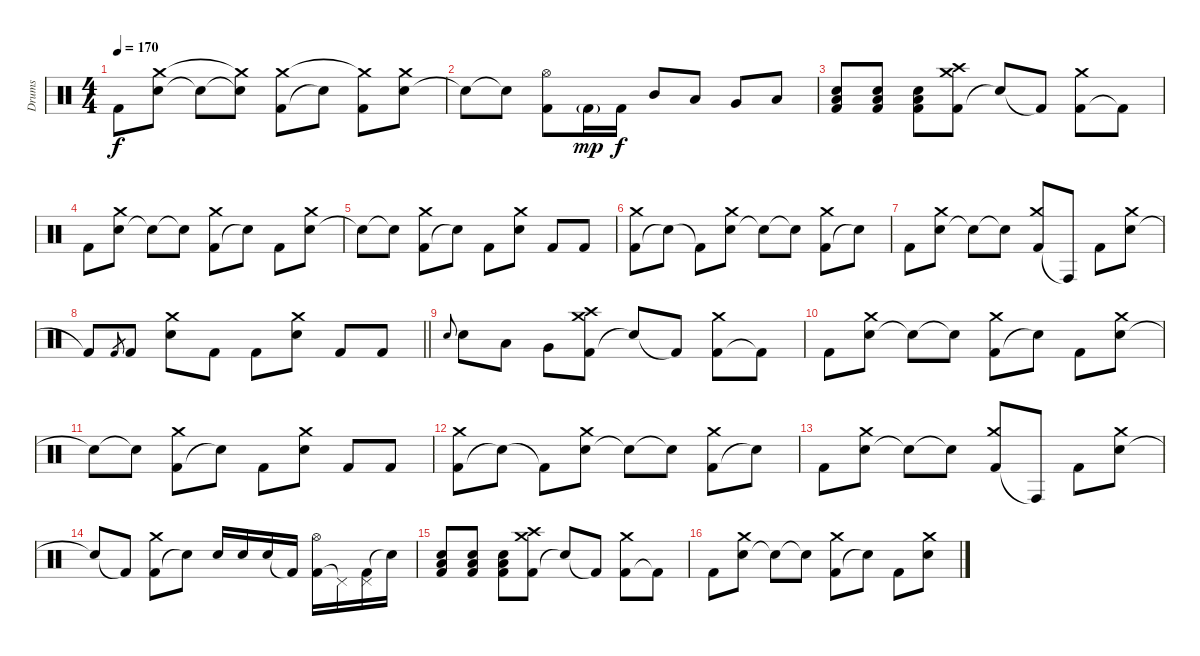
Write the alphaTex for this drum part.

\track ("Drums" "Drums") {instrument percussion}
\staff {score}
\articulation defaults
\ts (4 4)
\tempo 170
\clef neutral
\ks c "Kick (hit) 2".8{dy f}
("Electric Snare (hit)" "Crash medium (hit)").8 "Snare (hit)"{t}.8 ("Snare (hit)"{t} "Crash medium (hit)"{t}).8 ("Kick (hit) 2" "Crash medium (hit)").8 "Snare (hit)"{t}.8 ("Kick (hit) 2" "Crash medium (hit)"{t}).8 ("Electric Snare (hit)" "Crash medium (hit)").8 |
"Snare (hit)"{t}.8 "Snare (hit)"{t}.8 ("Kick (hit) 2" "Hi-Hat (open)").8 "Kick (hit) 2"{g}.16{dy mp} "Kick (hit) 2".16{dy f} "Mid Tom (hit)".8 "Low Tom (hit)".8 "Very Low Tom (hit)".8 "Low Floor Tom (hit)".8 |
("Electric Snare (hit)" "Low Floor Tom (hit)" "Kick (hit) 2").8 ("Electric Snare (hit)" "Low Floor Tom (hit)" "Kick (hit) 2").8 ("Electric Snare (hit)" "Low Floor Tom (hit)" "Kick (hit) 2").8 ("Kick (hit) 2" "Crash medium (hit)" "Crash high (hit)").8 "Snare (hit)"{t}.8 "Kick (hit) 2"{t}.8 ("Kick (hit) 2" "Crash medium (hit)").8 "Kick (hit) 2"{t}.8 |
"Kick (hit) 2".8 ("Electric Snare (hit)" "Crash medium (hit)").8 "Snare (hit)"{t}.8 "Snare (hit)"{t}.8 ("Kick (hit) 2" "Crash medium (hit)").8 "Snare (hit)"{t}.8 "Kick (hit) 2".8 ("Electric Snare (hit)" "Crash medium (hit)").8 |
"Snare (hit)"{t}.8 "Snare (hit)"{t}.8 ("Kick (hit) 2" "Crash medium (hit)").8 "Electric Snare (hit)"{t}.8 "Kick (hit) 2".8 ("Electric Snare (hit)" "Crash medium (hit)").8 "Kick (hit) 2".8 "Kick (hit) 2".8 |
("Kick (hit) 2" "Crash medium (hit)").8 "Snare (hit)"{t}.8 "Kick (hit) 2"{t}.8 ("Electric Snare (hit)" "Crash medium (hit)").8 "Snare (hit)"{t}.8 "Snare (hit)"{t}.8 ("Kick (hit) 2" "Crash medium (hit)").8 "Snare (hit)"{t}.8 |
"Kick (hit) 2".8 ("Electric Snare (hit)" "Crash medium (hit)").8 "Snare (hit)"{t}.8 "Snare (hit)"{t}.8 ("Kick (hit) 2" "Crash medium (hit)").8 "Conga high (hit)"{t}.8 "Kick (hit) 2".8 ("Electric Snare (hit)" "Crash medium (hit)").8 |
\barLineRight lightlight "Kick (hit) 2"{t}.8 "Kick (hit) 2".8{gr} "Kick (hit) 2".8
("Electric Snare (hit)" "Crash medium (hit)").8 "Kick (hit) 2".8 "Kick (hit) 2".8 ("Electric Snare (hit)" "Crash medium (hit)").8 "Kick (hit) 2".8 "Kick (hit) 2".8 |
"Electric Snare (hit)".8{gr onbeat} "Electric Snare (hit)".8 "Low Tom (hit)".8 "Very Low Tom (hit)".8 ("Kick (hit) 2" "Crash medium (hit)" "Crash high (hit)").8 "Snare (hit)"{t}.8 "Kick (hit) 2"{t}.8 ("Kick (hit) 2" "Crash medium (hit)").8 "Kick (hit) 2"{t}.8 |
"Kick (hit) 2".8 ("Electric Snare (hit)" "Crash medium (hit)").8 "Snare (hit)"{t}.8 "Snare (hit)"{t}.8 ("Kick (hit) 2" "Crash medium (hit)").8 "Snare (hit)"{t}.8 "Kick (hit) 2".8 ("Electric Snare (hit)" "Crash medium (hit)").8 |
"Snare (hit)"{t}.8 "Snare (hit)"{t}.8 ("Kick (hit) 2" "Crash medium (hit)").8 "Electric Snare (hit)"{t}.8 "Kick (hit) 2".8 ("Electric Snare (hit)" "Crash medium (hit)").8 "Kick (hit) 2".8 "Kick (hit) 2".8 |
("Kick (hit) 2" "Crash medium (hit)").8 "Snare (hit)"{t}.8 "Kick (hit) 2"{t}.8 ("Electric Snare (hit)" "Crash medium (hit)").8 "Snare (hit)"{t}.8 "Snare (hit)"{t}.8 ("Kick (hit) 2" "Crash medium (hit)").8 "Snare (hit)"{t}.8 |
"Kick (hit) 2".8 ("Electric Snare (hit)" "Crash medium (hit)").8 "Snare (hit)"{t}.8 "Snare (hit)"{t}.8 ("Kick (hit) 2" "Crash medium (hit)").8 "Conga high (hit)"{t}.8 "Kick (hit) 2".8 ("Electric Snare (hit)" "Crash medium (hit)").8 |
"Snare (hit)"{t}.8 "Kick (hit) 2"{t}.8 ("Kick (hit) 2" "Crash medium (hit)").8 "Electric Snare (hit)"{t}.8 "Electric Snare (hit)".16 "Electric Snare (hit)".16 "Electric Snare (hit)".16 "Kick (hit) 2"{t}.16 ("Kick (hit) 2" "Hi-Hat (open)").16 "Pedal Hi-Hat (hit)"{t}.16 ("Kick (hit) 2" "Pedal Hi-Hat (hit)").16 "Snare (hit)"{t}.16 |
("Electric Snare (hit)" "Low Floor Tom (hit)" "Kick (hit) 2").8 ("Electric Snare (hit)" "Low Floor Tom (hit)" "Kick (hit) 2").8 ("Electric Snare (hit)" "Low Floor Tom (hit)" "Kick (hit) 2").8 ("Kick (hit) 2" "Crash medium (hit)" "Crash high (hit)").8 "Snare (hit)"{t}.8 "Kick (hit) 2"{t}.8 ("Kick (hit) 2" "Crash medium (hit)").8 "Kick (hit) 2"{t}.8 |
"Kick (hit) 2".8 ("Electric Snare (hit)" "Crash medium (hit)").8 "Snare (hit)"{t}.8 "Snare (hit)"{t}.8 ("Kick (hit) 2" "Crash medium (hit)").8 "Snare (hit)"{t}.8 "Kick (hit) 2".8 ("Electric Snare (hit)" "Crash medium (hit)").8
